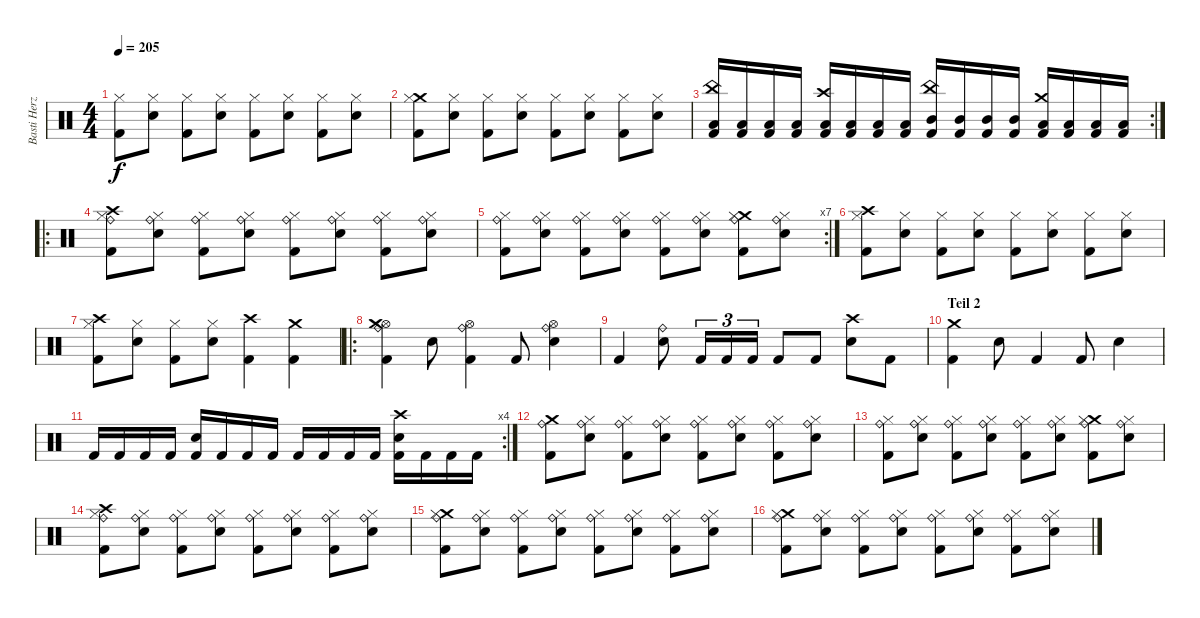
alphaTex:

\track ("Basti Herzog" "Basti Herz") {instrument percussion}
\staff {score}
\articulation defaults
\ts (4 4)
\tempo 205
\clef neutral
\ks c
("Hi-Hat (closed)" "Kick (hit) 2").8{dy f} ("Hi-Hat (closed)" "Snare (hit) 2").8 ("Hi-Hat (closed)" "Kick (hit) 2").8 ("Hi-Hat (closed)" "Snare (hit) 2").8 ("Hi-Hat (closed)" "Kick (hit) 2").8 ("Hi-Hat (closed)" "Snare (hit) 2").8 ("Hi-Hat (closed)" "Kick (hit) 2").8 ("Hi-Hat (closed)" "Snare (hit) 2").8 |
("Crash medium (hit)" "Hi-Hat (closed)" "Kick (hit) 2").8 ("Hi-Hat (closed)" "Snare (hit) 2").8 ("Hi-Hat (closed)" "Kick (hit) 2").8 ("Hi-Hat (closed)" "Snare (hit) 2").8 ("Hi-Hat (closed)" "Kick (hit) 2").8 ("Hi-Hat (closed)" "Snare (hit) 2").8 ("Hi-Hat (closed)" "Kick (hit) 2").8 ("Hi-Hat (closed)" "Snare (hit) 2").8 |
\rc 2
("China (hit)" "Low Tom (hit)" "Kick (hit) 2").16 ("Low Tom (hit)" "Kick (hit) 2").16 ("Low Tom (hit)" "Kick (hit) 2").16 ("Low Tom (hit)" "Kick (hit) 2").16 ("Crash high (hit)" "Low Floor Tom (hit)" "Kick (hit) 2").16 ("Low Floor Tom (hit)" "Kick (hit) 2").16 ("Low Floor Tom (hit)" "Kick (hit) 2").16 ("Low Floor Tom (hit)" "Kick (hit) 2").16 ("China (hit)" "Mid Tom (hit)" "Kick (hit) 2").16 ("Mid Tom (hit)" "Kick (hit) 2").16 ("Mid Tom (hit)" "Kick (hit) 2").16 ("Mid Tom (hit)" "Kick (hit) 2").16 ("Crash medium (hit)" "Low Tom (hit)" "Kick (hit) 2").16 ("Low Tom (hit)" "Kick (hit) 2").16 ("Low Tom (hit)" "Kick (hit) 2").16 ("Low Tom (hit)" "Kick (hit) 2").16 |
\ro
("Ride (bell)" "Crash high (hit)" "Hi-Hat (closed)" "Kick (hit) 2").8 ("Ride (bell)" "Hi-Hat (closed)" "Snare (hit) 2").8 ("Ride (bell)" "Hi-Hat (closed)" "Kick (hit) 2").8 ("Ride (bell)" "Hi-Hat (closed)" "Snare (hit) 2").8 ("Ride (bell)" "Hi-Hat (closed)" "Kick (hit) 2").8 ("Ride (bell)" "Hi-Hat (closed)" "Snare (hit) 2").8 ("Ride (bell)" "Hi-Hat (closed)" "Kick (hit) 2").8 ("Ride (bell)" "Hi-Hat (closed)" "Snare (hit) 2").8 |
\rc 7
("Ride (bell)" "Hi-Hat (closed)" "Kick (hit) 2").8 ("Ride (bell)" "Hi-Hat (closed)" "Snare (hit) 2").8 ("Ride (bell)" "Hi-Hat (closed)" "Kick (hit) 2").8 ("Ride (bell)" "Hi-Hat (closed)" "Snare (hit) 2").8 ("Ride (bell)" "Hi-Hat (closed)" "Kick (hit) 2").8 ("Ride (bell)" "Hi-Hat (closed)" "Snare (hit) 2").8 ("Ride (bell)" "Crash medium (hit)" "Hi-Hat (closed)" "Kick (hit) 2").8 ("Ride (bell)" "Hi-Hat (closed)" "Snare (hit) 2").8 |
("Crash high (hit)" "Hi-Hat (closed)" "Kick (hit) 2").8 ("Hi-Hat (closed)" "Snare (hit) 2").8 ("Hi-Hat (closed)" "Kick (hit) 2").8 ("Hi-Hat (closed)" "Snare (hit) 2").8 ("Hi-Hat (closed)" "Kick (hit) 2").8 ("Hi-Hat (closed)" "Snare (hit) 2").8 ("Hi-Hat (closed)" "Kick (hit) 2").8 ("Hi-Hat (closed)" "Snare (hit) 2").8 |
("Crash high (hit)" "Hi-Hat (closed)" "Kick (hit) 2").8 ("Hi-Hat (closed)" "Snare (hit) 2").8 ("Hi-Hat (closed)" "Kick (hit) 2").8 ("Hi-Hat (closed)" "Snare (hit) 2").8 ("Crash high (hit)" "Kick (hit) 2").4 ("Crash medium (hit)" "Kick (hit) 2").4 |
\ro
("Ride (bell)" "Hi-Hat (open)" "Crash medium (hit)" "Kick (hit) 2").4 "Snare (hit) 2".8 ("Ride (bell)" "Hi-Hat (open)" "Kick (hit) 2").4 "Kick (hit) 2".8 ("Ride (bell)" "Hi-Hat (open)" "Snare (hit) 2").4 |
"Kick (hit) 2".4 ("Ride (bell)" "Snare (hit) 2").8 "Kick (hit) 2".16{tu (3 2)} "Kick (hit) 2".16{tu (3 2)} "Kick (hit) 2".16{tu (3 2)} "Kick (hit) 2".8 "Kick (hit) 2".8 ("Crash high (hit)" "Snare (hit) 2").8 "Kick (hit) 2".8 |
\section ("" "Teil 2")
("Crash medium (hit)" "Kick (hit) 2").4 "Snare (hit) 2".8 "Kick (hit) 2".4 "Kick (hit) 2".8 "Snare (hit) 2".4 |
\rc 4 "Kick (hit) 2".16 "Kick (hit) 2".16 "Kick (hit) 2".16 "Kick (hit) 2".16
("Snare (hit) 2" "Kick (hit) 2").16 "Kick (hit) 2".16 "Kick (hit) 2".16 "Kick (hit) 2".16 "Kick (hit) 2".16 "Kick (hit) 2".16 "Kick (hit) 2".16 "Kick (hit) 2".16 ("Crash high (hit)" "Snare (hit) 2" "Kick (hit) 2").16 "Kick (hit) 2".16 "Kick (hit) 2".16 "Kick (hit) 2".16 |
("Ride (bell)" "Crash medium (hit)" "Kick (hit) 2").8 ("Ride (bell)" "Hi-Hat (closed)" "Snare (hit) 2").8 ("Ride (bell)" "Hi-Hat (closed)" "Kick (hit) 2").8 ("Ride (bell)" "Hi-Hat (closed)" "Snare (hit) 2").8 ("Ride (bell)" "Hi-Hat (closed)" "Kick (hit) 2").8 ("Ride (bell)" "Hi-Hat (closed)" "Snare (hit) 2").8 ("Ride (bell)" "Hi-Hat (closed)" "Kick (hit) 2").8 ("Ride (bell)" "Hi-Hat (closed)" "Snare (hit) 2").8 |
("Ride (bell)" "Hi-Hat (closed)" "Kick (hit) 2").8 ("Ride (bell)" "Hi-Hat (closed)" "Snare (hit) 2").8 ("Ride (bell)" "Hi-Hat (closed)" "Kick (hit) 2").8 ("Ride (bell)" "Hi-Hat (closed)" "Snare (hit) 2").8 ("Ride (bell)" "Hi-Hat (closed)" "Kick (hit) 2").8 ("Ride (bell)" "Hi-Hat (closed)" "Snare (hit) 2").8 ("Ride (bell)" "Crash medium (hit)" "Hi-Hat (closed)" "Kick (hit) 2").8 ("Ride (bell)" "Hi-Hat (closed)" "Snare (hit) 2").8 |
("Ride (bell)" "Crash high (hit)" "Hi-Hat (closed)" "Kick (hit) 2").8 ("Ride (bell)" "Hi-Hat (closed)" "Snare (hit) 2").8 ("Ride (bell)" "Hi-Hat (closed)" "Kick (hit) 2").8 ("Ride (bell)" "Hi-Hat (closed)" "Snare (hit) 2").8 ("Ride (bell)" "Hi-Hat (closed)" "Kick (hit) 2").8 ("Ride (bell)" "Hi-Hat (closed)" "Snare (hit) 2").8 ("Ride (bell)" "Hi-Hat (closed)" "Kick (hit) 2").8 ("Ride (bell)" "Hi-Hat (closed)" "Snare (hit) 2").8 |
("Ride (bell)" "Crash medium (hit)" "Hi-Hat (closed)" "Kick (hit) 2").8 ("Ride (bell)" "Hi-Hat (closed)" "Snare (hit) 2").8 ("Ride (bell)" "Hi-Hat (closed)" "Kick (hit) 2").8 ("Ride (bell)" "Hi-Hat (closed)" "Snare (hit) 2").8 ("Ride (bell)" "Hi-Hat (closed)" "Kick (hit) 2").8 ("Ride (bell)" "Hi-Hat (closed)" "Snare (hit) 2").8 ("Ride (bell)" "Hi-Hat (closed)" "Kick (hit) 2").8 ("Ride (bell)" "Hi-Hat (closed)" "Snare (hit) 2").8 |
("Ride (bell)" "Crash medium (hit)" "Hi-Hat (closed)" "Kick (hit) 2").8 ("Ride (bell)" "Hi-Hat (closed)" "Snare (hit) 2").8 ("Ride (bell)" "Hi-Hat (closed)" "Kick (hit) 2").8 ("Ride (bell)" "Hi-Hat (closed)" "Snare (hit) 2").8 ("Ride (bell)" "Hi-Hat (closed)" "Kick (hit) 2").8 ("Ride (bell)" "Hi-Hat (closed)" "Snare (hit) 2").8 ("Ride (bell)" "Hi-Hat (closed)" "Kick (hit) 2").8 ("Ride (bell)" "Hi-Hat (closed)" "Snare (hit) 2").8
